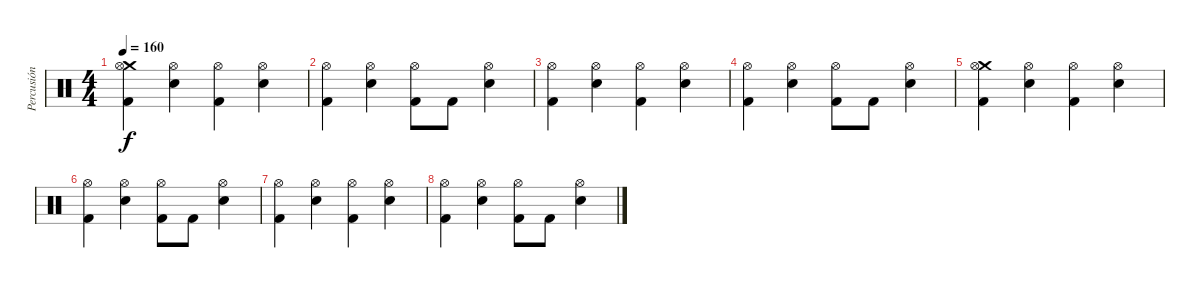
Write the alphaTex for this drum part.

\track ("Percusión" "Percusión") {instrument percussion}
\staff {score}
\articulation defaults
\ts (4 4)
\tempo 160
\clef neutral
\ks c
("Crash medium (hit)" "Hi-Hat (open)" "Kick (hit) 2").4{dy f} ("Hi-Hat (open)" "Snare (hit) 2").4 ("Hi-Hat (open)" "Kick (hit) 2").4 ("Hi-Hat (open)" "Snare (hit) 2").4 |
("Hi-Hat (open)" "Kick (hit) 2").4 ("Hi-Hat (open)" "Snare (hit) 2").4 ("Hi-Hat (open)" "Kick (hit) 2").8 "Kick (hit) 2".8 ("Hi-Hat (open)" "Snare (hit) 2").4 |
("Hi-Hat (open)" "Kick (hit) 2").4 ("Hi-Hat (open)" "Snare (hit) 2").4 ("Hi-Hat (open)" "Kick (hit) 2").4 ("Hi-Hat (open)" "Snare (hit) 2").4 |
("Hi-Hat (open)" "Kick (hit) 2").4 ("Hi-Hat (open)" "Snare (hit) 2").4 ("Hi-Hat (open)" "Kick (hit) 2").8 "Kick (hit) 2".8 ("Hi-Hat (open)" "Snare (hit) 2").4 |
("Crash medium (hit)" "Hi-Hat (open)" "Kick (hit) 2").4 ("Hi-Hat (open)" "Snare (hit) 2").4 ("Hi-Hat (open)" "Kick (hit) 2").4 ("Hi-Hat (open)" "Snare (hit) 2").4 |
("Hi-Hat (open)" "Kick (hit) 2").4 ("Hi-Hat (open)" "Snare (hit) 2").4 ("Hi-Hat (open)" "Kick (hit) 2").8 "Kick (hit) 2".8 ("Hi-Hat (open)" "Snare (hit) 2").4 |
("Hi-Hat (open)" "Kick (hit) 2").4 ("Hi-Hat (open)" "Snare (hit) 2").4 ("Hi-Hat (open)" "Kick (hit) 2").4 ("Hi-Hat (open)" "Snare (hit) 2").4 |
("Hi-Hat (open)" "Kick (hit) 2").4 ("Hi-Hat (open)" "Snare (hit) 2").4 ("Hi-Hat (open)" "Kick (hit) 2").8 "Kick (hit) 2".8 ("Hi-Hat (open)" "Snare (hit) 2").4
